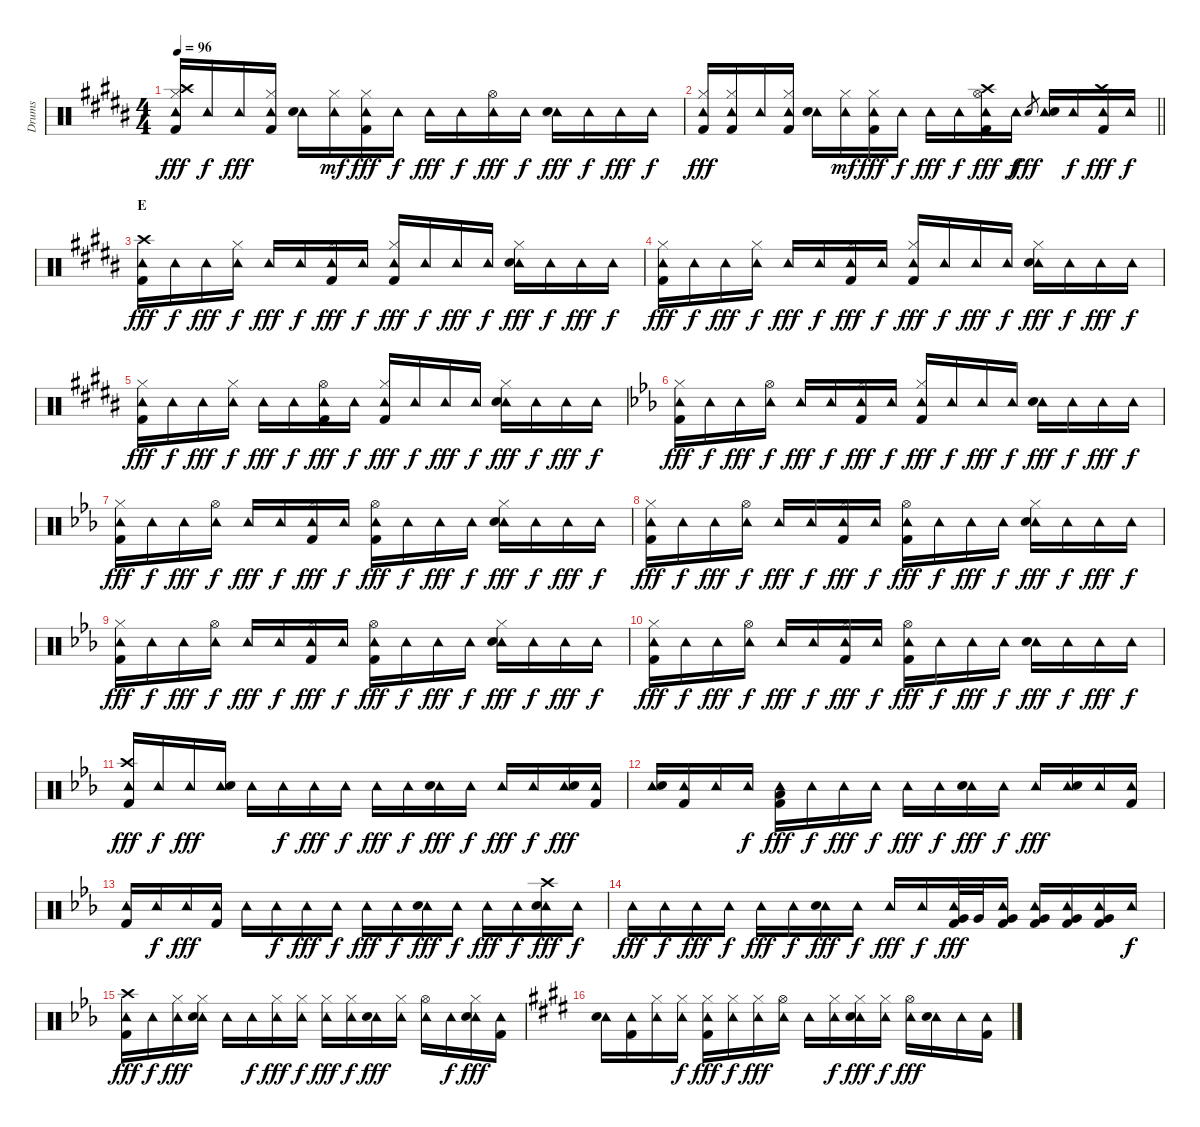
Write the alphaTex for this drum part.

\track ("Drums" "Drums") {instrument percussion}
\staff {score}
\articulation defaults
\ts (4 4)
\tempo 96
\clef neutral
\ks b
("Tambourine (hit)" "Hi-Hat (closed)" "Crash high (hit)" "Kick (hit) 2").16{dy fff} "Tambourine (hit)".16{dy f} "Tambourine (hit)".16{dy fff} ("Tambourine (hit)" "Hi-Hat (closed)" "Kick (hit) 2").16 ("Tambourine (hit)" "Snare (hit) 2").16 ("Tambourine (hit)" "Hi-Hat (closed)").16{dy mf} ("Tambourine (hit)" "Hi-Hat (closed)" "Kick (hit) 2").16{dy fff} "Tambourine (hit)".16{dy f} "Tambourine (hit)".16{dy fff} "Tambourine (hit)".16{dy f} ("Tambourine (hit)" "Hi-Hat (open)").16{dy fff} "Tambourine (hit)".16{dy f} ("Tambourine (hit)" "Snare (hit) 2").16{dy fff} "Tambourine (hit)".16{dy f} "Tambourine (hit)".16{dy fff} "Tambourine (hit)".16{dy f} |
\barLineRight lightlight
("Tambourine (hit)" "Hi-Hat (closed)" "Kick (hit) 2").16{dy fff} ("Tambourine (hit)" "Hi-Hat (closed)" "Kick (hit) 2").16 "Tambourine (hit)".16 ("Tambourine (hit)" "Hi-Hat (closed)" "Kick (hit) 2").16 ("Tambourine (hit)" "Snare (hit) 2").16 ("Tambourine (hit)" "Hi-Hat (closed)").16{dy mf} ("Tambourine (hit)" "Hi-Hat (closed)" "Kick (hit) 2").16{dy fff} "Tambourine (hit)".16{dy f} "Tambourine (hit)".16{dy fff} "Tambourine (hit)".16{dy f} ("Tambourine (hit)" "Hi-Hat (open)" "Crash high (hit)" "Kick (hit) 2").16{dy fff} "Tambourine (hit)".16{dy f} "Snare (hit) 2".8{gr dy fff} ("Tambourine (hit)" "Snare (hit) 2").16 "Tambourine (hit)".16{dy f} ("Tambourine (hit)" "Crash high (hit)" "Kick (hit) 2").16{dy fff} "Tambourine (hit)".16{dy f} |
\section ("" "E")
("Tambourine (hit)" "Crash high (hit)" "Kick (hit) 2").16{dy fff} "Tambourine (hit)".16{dy f} "Tambourine (hit)".16{dy fff} ("Tambourine (hit)" "Hi-Hat (closed)").16{dy f} "Tambourine (hit)".16{dy fff} "Tambourine (hit)".16{dy f} ("Tambourine (hit)" "Hi-Hat (closed)" "Kick (hit) 2").16{dy fff} "Tambourine (hit)".16{dy f} ("Tambourine (hit)" "Hi-Hat (closed)" "Kick (hit) 2").16{dy fff} "Tambourine (hit)".16{dy f} "Tambourine (hit)".16{dy fff} "Tambourine (hit)".16{dy f} ("Tambourine (hit)" "Hi-Hat (closed)" "Snare (hit) 2").16{dy fff} "Tambourine (hit)".16{dy f} "Tambourine (hit)".16{dy fff} "Tambourine (hit)".16{dy f} |
("Tambourine (hit)" "Hi-Hat (closed)" "Kick (hit) 2").16{dy fff} "Tambourine (hit)".16{dy f} "Tambourine (hit)".16{dy fff} ("Tambourine (hit)" "Hi-Hat (closed)").16{dy f} "Tambourine (hit)".16{dy fff} "Tambourine (hit)".16{dy f} ("Tambourine (hit)" "Hi-Hat (closed)" "Kick (hit) 2").16{dy fff} "Tambourine (hit)".16{dy f} ("Tambourine (hit)" "Hi-Hat (closed)" "Kick (hit) 2").16{dy fff} "Tambourine (hit)".16{dy f} "Tambourine (hit)".16{dy fff} "Tambourine (hit)".16{dy f} ("Tambourine (hit)" "Hi-Hat (closed)" "Snare (hit) 2").16{dy fff} "Tambourine (hit)".16{dy f} "Tambourine (hit)".16{dy fff} "Tambourine (hit)".16{dy f} |
("Tambourine (hit)" "Hi-Hat (closed)" "Kick (hit) 2").16{dy fff} "Tambourine (hit)".16{dy f} "Tambourine (hit)".16{dy fff} ("Tambourine (hit)" "Hi-Hat (closed)").16{dy f} "Tambourine (hit)".16{dy fff} "Tambourine (hit)".16{dy f} ("Tambourine (hit)" "Hi-Hat (open)" "Kick (hit) 2").16{dy fff} "Tambourine (hit)".16{dy f} ("Tambourine (hit)" "Hi-Hat (closed)" "Kick (hit) 2").16{dy fff} "Tambourine (hit)".16{dy f} "Tambourine (hit)".16{dy fff} "Tambourine (hit)".16{dy f} ("Tambourine (hit)" "Hi-Hat (closed)" "Snare (hit) 2").16{dy fff} "Tambourine (hit)".16{dy f} "Tambourine (hit)".16{dy fff} "Tambourine (hit)".16{dy f} |
\ks eb
("Tambourine (hit)" "Hi-Hat (closed)" "Kick (hit) 2").16{dy fff} "Tambourine (hit)".16{dy f} "Tambourine (hit)".16{dy fff} ("Tambourine (hit)" "Hi-Hat (open)").16{dy f} "Tambourine (hit)".16{dy fff} "Tambourine (hit)".16{dy f} ("Tambourine (hit)" "Hi-Hat (closed)" "Kick (hit) 2").16{dy fff} "Tambourine (hit)".16{dy f} ("Tambourine (hit)" "Hi-Hat (closed)" "Kick (hit) 2").16{dy fff} "Tambourine (hit)".16{dy f} "Tambourine (hit)".16{dy fff} "Tambourine (hit)".16{dy f} ("Tambourine (hit)" "Snare (hit) 2").16{dy fff} "Tambourine (hit)".16{dy f} "Tambourine (hit)".16{dy fff} "Tambourine (hit)".16{dy f} |
("Tambourine (hit)" "Hi-Hat (closed)" "Kick (hit) 2").16{dy fff} "Tambourine (hit)".16{dy f} "Tambourine (hit)".16{dy fff} ("Tambourine (hit)" "Hi-Hat (open)").16{dy f} "Tambourine (hit)".16{dy fff} "Tambourine (hit)".16{dy f} ("Tambourine (hit)" "Hi-Hat (closed)" "Kick (hit) 2").16{dy fff} "Tambourine (hit)".16{dy f} ("Tambourine (hit)" "Hi-Hat (open)" "Kick (hit) 2").16{dy fff} "Tambourine (hit)".16{dy f} "Tambourine (hit)".16{dy fff} "Tambourine (hit)".16{dy f} ("Tambourine (hit)" "Hi-Hat (closed)" "Snare (hit) 2").16{dy fff} "Tambourine (hit)".16{dy f} "Tambourine (hit)".16{dy fff} "Tambourine (hit)".16{dy f} |
("Tambourine (hit)" "Hi-Hat (closed)" "Kick (hit) 2").16{dy fff} "Tambourine (hit)".16{dy f} "Tambourine (hit)".16{dy fff} ("Tambourine (hit)" "Hi-Hat (open)").16{dy f} "Tambourine (hit)".16{dy fff} "Tambourine (hit)".16{dy f} ("Tambourine (hit)" "Hi-Hat (closed)" "Kick (hit) 2").16{dy fff} "Tambourine (hit)".16{dy f} ("Tambourine (hit)" "Hi-Hat (open)" "Kick (hit) 2").16{dy fff} "Tambourine (hit)".16{dy f} "Tambourine (hit)".16{dy fff} "Tambourine (hit)".16{dy f} ("Tambourine (hit)" "Hi-Hat (closed)" "Snare (hit) 2").16{dy fff} "Tambourine (hit)".16{dy f} "Tambourine (hit)".16{dy fff} "Tambourine (hit)".16{dy f} |
("Tambourine (hit)" "Hi-Hat (closed)" "Kick (hit) 2").16{dy fff} "Tambourine (hit)".16{dy f} "Tambourine (hit)".16{dy fff} ("Tambourine (hit)" "Hi-Hat (open)").16{dy f} "Tambourine (hit)".16{dy fff} "Tambourine (hit)".16{dy f} ("Tambourine (hit)" "Hi-Hat (closed)" "Kick (hit) 2").16{dy fff} "Tambourine (hit)".16{dy f} ("Tambourine (hit)" "Hi-Hat (open)" "Kick (hit) 2").16{dy fff} "Tambourine (hit)".16{dy f} "Tambourine (hit)".16{dy fff} "Tambourine (hit)".16{dy f} ("Tambourine (hit)" "Hi-Hat (closed)" "Snare (hit) 2").16{dy fff} "Tambourine (hit)".16{dy f} "Tambourine (hit)".16{dy fff} "Tambourine (hit)".16{dy f} |
("Tambourine (hit)" "Hi-Hat (closed)" "Kick (hit) 2").16{dy fff} "Tambourine (hit)".16{dy f} "Tambourine (hit)".16{dy fff} ("Tambourine (hit)" "Hi-Hat (open)").16{dy f} "Tambourine (hit)".16{dy fff} "Tambourine (hit)".16{dy f} ("Tambourine (hit)" "Hi-Hat (closed)" "Kick (hit) 2").16{dy fff} "Tambourine (hit)".16{dy f} ("Tambourine (hit)" "Hi-Hat (open)" "Kick (hit) 2").16{dy fff} "Tambourine (hit)".16{dy f} "Tambourine (hit)".16{dy fff} "Tambourine (hit)".16{dy f} ("Tambourine (hit)" "Snare (hit) 2").16{dy fff} "Tambourine (hit)".16{dy f} "Tambourine (hit)".16{dy fff} "Tambourine (hit)".16{dy f} |
("Tambourine (hit)" "Crash high (hit)" "Kick (hit) 2").16{dy fff} "Tambourine (hit)".16{dy f} "Tambourine (hit)".16{dy fff} ("Tambourine (hit)" "Snare (hit) 2").16 "Tambourine (hit)".16 "Tambourine (hit)".16{dy f} "Tambourine (hit)".16{dy fff} "Tambourine (hit)".16{dy f} "Tambourine (hit)".16{dy fff} "Tambourine (hit)".16{dy f} ("Tambourine (hit)" "Snare (hit) 2").16{dy fff} "Tambourine (hit)".16{dy f} "Tambourine (hit)".16{dy fff} "Tambourine (hit)".16{dy f} ("Tambourine (hit)" "Snare (hit) 2").16{dy fff} ("Tambourine (hit)" "Kick (hit) 2").16 |
("Tambourine (hit)" "Snare (hit) 2").16 ("Tambourine (hit)" "Kick (hit) 2").16 "Tambourine (hit)".16 "Tambourine (hit)".16{dy f} ("Tambourine (hit)" "Low Floor Tom (hit)" "Kick (hit) 2").16{dy fff} "Tambourine (hit)".16{dy f} "Tambourine (hit)".16{dy fff} "Tambourine (hit)".16{dy f} "Tambourine (hit)".16{dy fff} "Tambourine (hit)".16{dy f} ("Tambourine (hit)" "Snare (hit) 2").16{dy fff} "Tambourine (hit)".16{dy f} "Tambourine (hit)".16{dy fff} ("Tambourine (hit)" "Snare (hit) 2").16 "Tambourine (hit)".16 ("Tambourine (hit)" "Kick (hit) 2").16 |
("Tambourine (hit)" "Kick (hit) 2").16 "Tambourine (hit)".16{dy f} "Tambourine (hit)".16{dy fff} ("Tambourine (hit)" "Kick (hit) 2").16 "Tambourine (hit)".16 "Tambourine (hit)".16{dy f} "Tambourine (hit)".16{dy fff} "Tambourine (hit)".16{dy f} "Tambourine (hit)".16{dy fff} "Tambourine (hit)".16{dy f} ("Tambourine (hit)" "Snare (hit) 2").16{dy fff} "Tambourine (hit)".16{dy f} "Tambourine (hit)".16{dy fff} "Tambourine (hit)".16{dy f} ("Tambourine (hit)" "Crash high (hit)" "Snare (hit) 2").16{dy fff} "Tambourine (hit)".16{dy f} |
"Tambourine (hit)".16{dy fff} "Tambourine (hit)".16{dy f} "Tambourine (hit)".16{dy fff} "Tambourine (hit)".16{dy f} "Tambourine (hit)".16{dy fff} "Tambourine (hit)".16{dy f} ("Tambourine (hit)" "Snare (hit) 2").16{dy fff} "Tambourine (hit)".16{dy f} "Tambourine (hit)".16{dy fff} "Tambourine (hit)".16{dy f} ("Tambourine (hit)" "Very Low Tom (hit)" "Kick (hit) 2").32{dy fff} "Very Low Tom (hit)".32 ("Tambourine (hit)" "Very Low Tom (hit)" "Kick (hit) 2").16 ("Tambourine (hit)" "Very Low Tom (hit)" "Kick (hit) 2").16 ("Tambourine (hit)" "Very Low Tom (hit)" "Kick (hit) 2").16 ("Tambourine (hit)" "Very Low Tom (hit)" "Kick (hit) 2").16 "Tambourine (hit)".16{dy f} |
("Tambourine (hit)" "Crash high (hit)" "Kick (hit) 2").16{dy fff} "Tambourine (hit)".16{dy f} ("Tambourine (hit)" "Hi-Hat (closed)").16{dy fff} ("Tambourine (hit)" "Hi-Hat (closed)" "Snare (hit) 2").16 "Tambourine (hit)".16 "Tambourine (hit)".16{dy f} ("Tambourine (hit)" "Hi-Hat (closed)").16{dy fff} ("Tambourine (hit)" "Hi-Hat (closed)").16{dy f} ("Tambourine (hit)" "Hi-Hat (closed)").16{dy fff} ("Tambourine (hit)" "Hi-Hat (closed)").16{dy f} ("Tambourine (hit)" "Snare (hit) 2").16{dy fff} ("Tambourine (hit)" "Hi-Hat (closed)").16 ("Tambourine (hit)" "Hi-Hat (open)").16 "Tambourine (hit)".16{dy f} ("Tambourine (hit)" "Hi-Hat (closed)" "Snare (hit) 2").16{dy fff} ("Tambourine (hit)" "Kick (hit) 2").16 |
\ks e
("Tambourine (hit)" "Snare (hit) 2").16 ("Tambourine (hit)" "Kick (hit) 2").16 ("Tambourine (hit)" "Hi-Hat (closed)").16 ("Tambourine (hit)" "Hi-Hat (closed)").16{dy f} ("Tambourine (hit)" "Hi-Hat (closed)" "Kick (hit) 2").16{dy fff} ("Tambourine (hit)" "Hi-Hat (closed)").16{dy f} ("Tambourine (hit)" "Hi-Hat (closed)").16{dy fff} ("Tambourine (hit)" "Hi-Hat (open)").16 "Tambourine (hit)".16 ("Tambourine (hit)" "Hi-Hat (closed)").16{dy f} ("Tambourine (hit)" "Hi-Hat (closed)" "Snare (hit) 2").16{dy fff} ("Tambourine (hit)" "Hi-Hat (closed)").16{dy f} ("Tambourine (hit)" "Hi-Hat (open)").16{dy fff} ("Tambourine (hit)" "Snare (hit) 2").16 "Tambourine (hit)".16 ("Tambourine (hit)" "Kick (hit) 2").16
